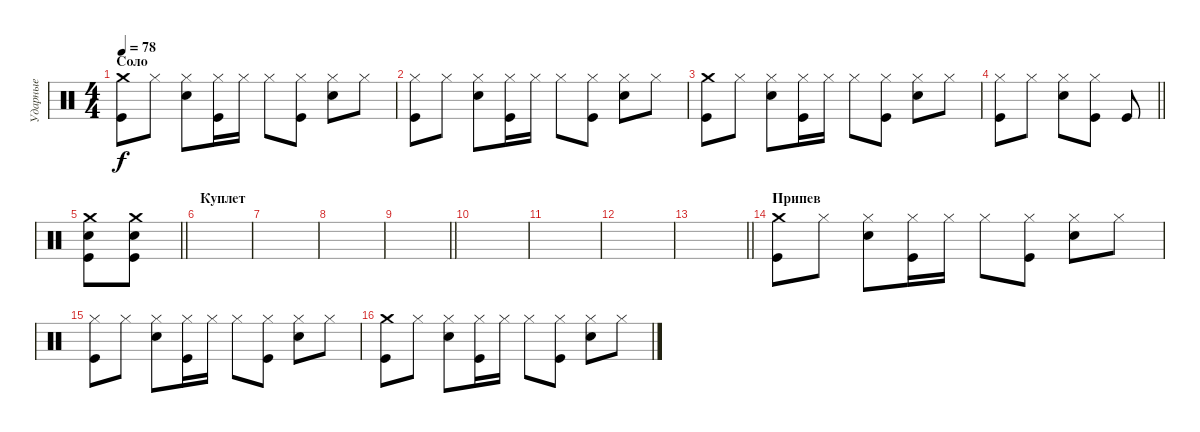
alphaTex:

\track ("Ударные" "Ударные") {instrument percussion}
\staff {score}
\articulation defaults
\ts (4 4)
\section ("" "Соло")
\tempo 78
\clef neutral
\ks c
("Crash medium (hit)" "Kick (hit)").8{dy f} "Hi-Hat (closed)".8 ("Hi-Hat (closed)" "Snare (hit) 2").8 ("Hi-Hat (closed)" "Kick (hit)").16 "Hi-Hat (closed)".16 "Hi-Hat (closed)".8 ("Hi-Hat (closed)" "Kick (hit)").8 ("Hi-Hat (closed)" "Snare (hit) 2").8 "Hi-Hat (closed)".8 |
("Hi-Hat (closed)" "Kick (hit)").8 "Hi-Hat (closed)".8 ("Hi-Hat (closed)" "Snare (hit) 2").8 ("Hi-Hat (closed)" "Kick (hit)").16 "Hi-Hat (closed)".16 "Hi-Hat (closed)".8 ("Hi-Hat (closed)" "Kick (hit)").8 ("Hi-Hat (closed)" "Snare (hit) 2").8 "Hi-Hat (closed)".8 |
("Crash medium (hit)" "Kick (hit)").8 "Hi-Hat (closed)".8 ("Hi-Hat (closed)" "Snare (hit) 2").8 ("Hi-Hat (closed)" "Kick (hit)").16 "Hi-Hat (closed)".16 "Hi-Hat (closed)".8 ("Hi-Hat (closed)" "Kick (hit)").8 ("Hi-Hat (closed)" "Snare (hit) 2").8 "Hi-Hat (closed)".8 |
\barLineRight lightlight
("Hi-Hat (closed)" "Kick (hit)").8 "Hi-Hat (closed)".8 ("Hi-Hat (closed)" "Snare (hit) 2").8 ("Hi-Hat (closed)" "Kick (hit)").8 "Kick (hit)".8 |
\barLineRight lightlight
("Kick (hit)" "Snare (hit) 2" "Crash medium (hit)").8 ("Kick (hit)" "Snare (hit) 2" "Crash medium (hit)").8 |
\section ("" "Куплет")
|
|
|
\barLineRight lightlight
|
|
|
|
\barLineRight lightlight
|
\section ("" "Припев")
("Crash medium (hit)" "Kick (hit)").8 "Hi-Hat (closed)".8 ("Hi-Hat (closed)" "Snare (hit) 2").8 ("Hi-Hat (closed)" "Kick (hit)").16 "Hi-Hat (closed)".16 "Hi-Hat (closed)".8 ("Hi-Hat (closed)" "Kick (hit)").8 ("Hi-Hat (closed)" "Snare (hit) 2").8 "Hi-Hat (closed)".8 |
("Hi-Hat (closed)" "Kick (hit)").8 "Hi-Hat (closed)".8 ("Hi-Hat (closed)" "Snare (hit) 2").8 ("Hi-Hat (closed)" "Kick (hit)").16 "Hi-Hat (closed)".16 "Hi-Hat (closed)".8 ("Hi-Hat (closed)" "Kick (hit)").8 ("Hi-Hat (closed)" "Snare (hit) 2").8 "Hi-Hat (closed)".8 |
("Crash medium (hit)" "Kick (hit)").8 "Hi-Hat (closed)".8 ("Hi-Hat (closed)" "Snare (hit) 2").8 ("Hi-Hat (closed)" "Kick (hit)").16 "Hi-Hat (closed)".16 "Hi-Hat (closed)".8 ("Hi-Hat (closed)" "Kick (hit)").8 ("Hi-Hat (closed)" "Snare (hit) 2").8 "Hi-Hat (closed)".8
